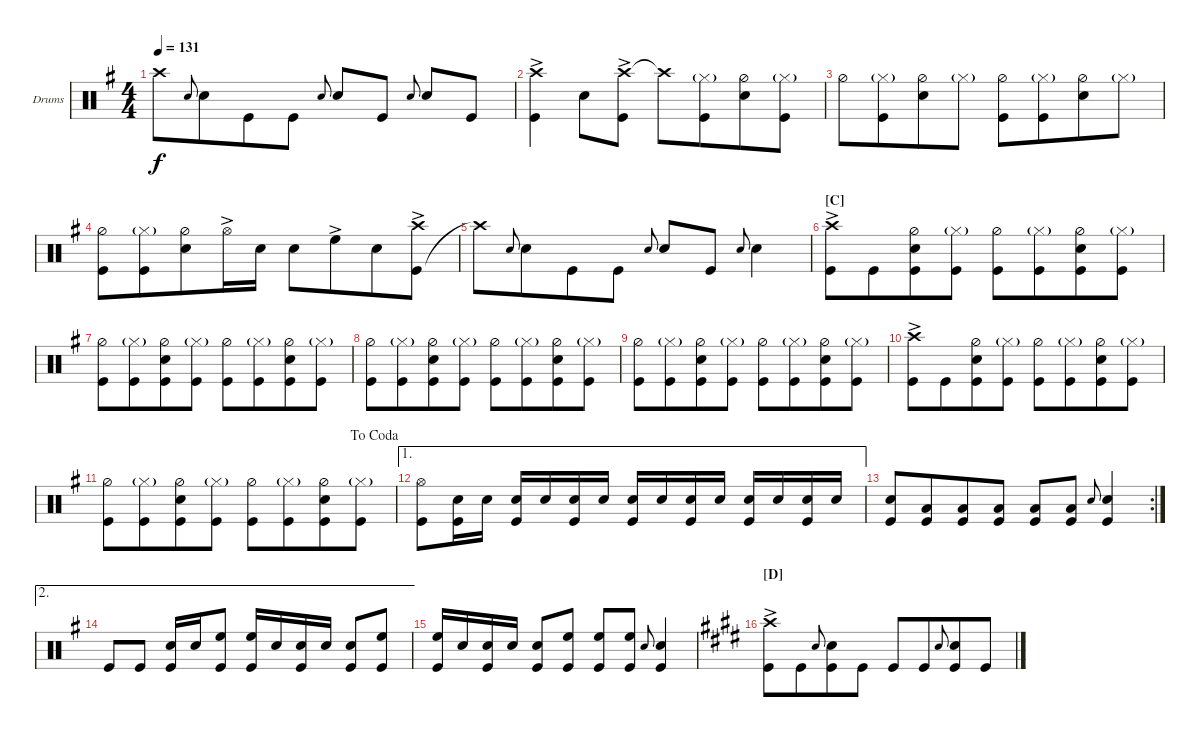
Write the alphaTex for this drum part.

\defaultSystemsLayout 4
\bracketExtendMode groupsimilarinstruments
\firstSystemTrackNameOrientation horizontal
\otherSystemsTrackNameOrientation horizontal
\track ("Drumkit" "Drums") {instrument percussion}
\staff {score}
\articulation defaults
\ts (4 4)
\tempo 131
\clef neutral
\ks g "Crash high (hit)"{t}.8{dy f} "Snare (hit) 2".8{gr onbeat beam merge} "Snare (hit) 2".8{beam merge} "Kick (hit)".8 "Kick (hit)".8 "Snare (hit) 2".8{gr onbeat beam merge} "Snare (hit) 2".8{beam merge} "Kick (hit)".8 "Snare (hit) 2".8{gr onbeat beam merge} "Snare (hit) 2".8{beam merge} "Kick (hit)".8
|
("Kick (hit)" "Crash high (hit)"{ac}).4 "Snare (hit) 2".8 ("Crash high (hit)"{ac} "Kick (hit)").8 "Crash high (hit)"{t}.8 ("Hi-Hat (closed)"{g} "Kick (hit)").8{beam merge} ("Hi-Hat (half)" "Snare (hit) 2").8 ("Hi-Hat (closed)"{g} "Kick (hit)").8 |
"Hi-Hat (half)".8 ("Hi-Hat (closed)"{g} "Kick (hit)").8{beam merge} ("Hi-Hat (half)" "Snare (hit) 2").8 "Hi-Hat (closed)"{g}.8 ("Hi-Hat (half)" "Kick (hit)").8 ("Hi-Hat (closed)"{g} "Kick (hit)").8{beam merge} ("Hi-Hat (half)" "Snare (hit) 2").8 "Hi-Hat (closed)"{g}.8 |
("Hi-Hat (half)" "Kick (hit)").8 ("Hi-Hat (closed)"{g} "Kick (hit)").8{beam merge} ("Hi-Hat (half)" "Snare (hit) 2").8 "Hi-Hat (open)"{ac}.16 "Snare (hit) 2".16 "Snare (hit) 2".8 "High Floor Tom (hit)"{ac}.8{beam merge} "Snare (hit) 2".8 ("Kick (hit)" "Crash high (hit)"{ac}).8 |
"Crash high (hit)"{t}.8 "Snare (hit) 2".8{gr onbeat beam merge} "Snare (hit) 2".8{beam merge} "Kick (hit)".8 "Kick (hit)".8 "Snare (hit) 2".8{gr onbeat beam merge} "Snare (hit) 2".8{beam merge} "Kick (hit)".8 "Snare (hit) 2".8{gr onbeat beam merge} "Snare (hit) 2".4{beam merge} |
\section ("" "[C]")
("Kick (hit)" "Crash high (hit)"{ac}).8 "Kick (hit)".8{beam merge} ("Kick (hit)" "Hi-Hat (half)" "Snare (hit) 2").8 ("Kick (hit)" "Hi-Hat (closed)"{g}).8 ("Kick (hit)" "Hi-Hat (half)").8 ("Kick (hit)" "Hi-Hat (closed)"{g}).8{beam merge} ("Kick (hit)" "Hi-Hat (half)" "Snare (hit) 2").8 ("Kick (hit)" "Hi-Hat (closed)"{g}).8 |
("Kick (hit)" "Hi-Hat (half)").8 ("Kick (hit)" "Hi-Hat (closed)"{g}).8{beam merge} ("Kick (hit)" "Hi-Hat (half)" "Snare (hit) 2").8 ("Kick (hit)" "Hi-Hat (closed)"{g}).8 ("Kick (hit)" "Hi-Hat (half)").8 ("Kick (hit)" "Hi-Hat (closed)"{g}).8{beam merge} ("Kick (hit)" "Hi-Hat (half)" "Snare (hit) 2").8 ("Kick (hit)" "Hi-Hat (closed)"{g}).8 |
("Kick (hit)" "Hi-Hat (half)").8 ("Kick (hit)" "Hi-Hat (closed)"{g}).8{beam merge} ("Kick (hit)" "Hi-Hat (half)" "Snare (hit) 2").8 ("Kick (hit)" "Hi-Hat (closed)"{g}).8 ("Kick (hit)" "Hi-Hat (half)").8 ("Kick (hit)" "Hi-Hat (closed)"{g}).8{beam merge} ("Kick (hit)" "Hi-Hat (half)" "Snare (hit) 2").8 ("Kick (hit)" "Hi-Hat (closed)"{g}).8 |
("Kick (hit)" "Hi-Hat (half)").8 ("Kick (hit)" "Hi-Hat (closed)"{g}).8{beam merge} ("Kick (hit)" "Hi-Hat (half)" "Snare (hit) 2").8 ("Kick (hit)" "Hi-Hat (closed)"{g}).8 ("Kick (hit)" "Hi-Hat (half)").8 ("Kick (hit)" "Hi-Hat (closed)"{g}).8{beam merge} ("Kick (hit)" "Hi-Hat (half)" "Snare (hit) 2").8 ("Kick (hit)" "Hi-Hat (closed)"{g}).8 |
("Kick (hit)" "Crash high (hit)"{ac}).8 "Kick (hit)".8{beam merge} ("Kick (hit)" "Hi-Hat (half)" "Snare (hit) 2").8 ("Kick (hit)" "Hi-Hat (closed)"{g}).8 ("Kick (hit)" "Hi-Hat (half)").8 ("Kick (hit)" "Hi-Hat (closed)"{g}).8{beam merge} ("Kick (hit)" "Hi-Hat (half)" "Snare (hit) 2").8 ("Kick (hit)" "Hi-Hat (closed)"{g}).8 |
\jump dacoda
("Kick (hit)" "Hi-Hat (half)").8 ("Kick (hit)" "Hi-Hat (closed)"{g}).8{beam merge} ("Kick (hit)" "Hi-Hat (half)" "Snare (hit) 2").8 ("Kick (hit)" "Hi-Hat (closed)"{g}).8 ("Kick (hit)" "Hi-Hat (half)").8 ("Kick (hit)" "Hi-Hat (closed)"{g}).8{beam merge} ("Kick (hit)" "Hi-Hat (half)" "Snare (hit) 2").8 ("Kick (hit)" "Hi-Hat (closed)"{g}).8 |
\ae 1
("Kick (hit)" "Hi-Hat (open)").8 ("Kick (hit)" "Snare (hit) 2").16{beam merge} "Snare (hit) 2".16 ("Kick (hit)" "Snare (hit) 2").16 "Snare (hit) 2".16 ("Kick (hit)" "Snare (hit) 2").16 "Snare (hit) 2".16 ("Kick (hit)" "Snare (hit) 2").16 "Snare (hit) 2".16 ("Kick (hit)" "Snare (hit) 2").16 "Snare (hit) 2".16 ("Kick (hit)" "Snare (hit) 2").16 "Snare (hit) 2".16 ("Kick (hit)" "Snare (hit) 2").16 "Snare (hit) 2".16 |
\rc 2
("Kick (hit)" "Snare (hit) 2").8 ("Kick (hit)" "Low Tom (hit)").8{beam merge} ("Kick (hit)" "Low Tom (hit)").8 ("Kick (hit)" "Low Tom (hit)").8 ("Kick (hit)" "Low Tom (hit)").8 ("Kick (hit)" "Low Tom (hit)").8{beam merge} "Snare (hit) 2".8{gr onbeat} ("Kick (hit)" "Snare (hit) 2").4 |
\ae 2 "Kick (hit)".8 "Kick (hit)".8
("Kick (hit)" "Snare (hit) 2").16 "Snare (hit) 2".16 ("High Floor Tom (hit)" "Kick (hit)").8 ("High Floor Tom (hit)" "Kick (hit)").16 "Snare (hit) 2".16 ("Snare (hit) 2" "Kick (hit)").16 "Snare (hit) 2".16 ("Snare (hit) 2" "Kick (hit)").8 ("High Floor Tom (hit)" "Kick (hit)").8 |
("Kick (hit)" "High Floor Tom (hit)").16 "Snare (hit) 2".16 ("Snare (hit) 2" "Kick (hit)").16 "Snare (hit) 2".16 ("Snare (hit) 2" "Kick (hit)").8 ("High Floor Tom (hit)" "Kick (hit)").8 ("High Floor Tom (hit)" "Kick (hit)").8 ("High Floor Tom (hit)" "Kick (hit)").8 "Snare (hit) 2".8{gr onbeat} ("Snare (hit) 2" "Kick (hit)").4 |
\section ("" "[D]")
\ks c#minor
("Kick (hit)" "Crash high (hit)"{ac}).8 "Kick (hit)".8{beam merge} "Snare (hit) 2".8{gr onbeat} ("Kick (hit)" "Snare (hit) 2").8 "Kick (hit)".8 "Kick (hit)".8 "Kick (hit)".8{beam merge} "Snare (hit) 2".8{gr onbeat} ("Kick (hit)" "Snare (hit) 2").8 "Kick (hit)".8
